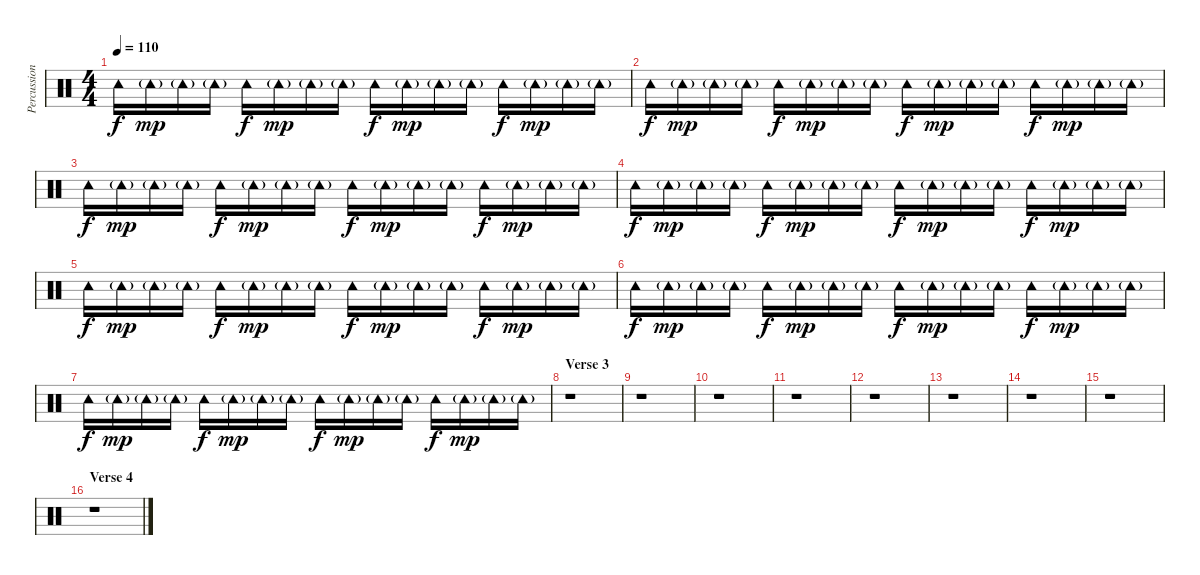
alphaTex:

\track ("Percussion" "Percussion") {instrument percussion}
\staff {score}
\articulation defaults
\ts (4 4)
\tempo 110
\clef neutral
\ks c "Tambourine (hit)".16{dy f} "Tambourine (hit)"{g}.16{dy mp} "Tambourine (hit)"{g}.16 "Tambourine (hit)"{g}.16 "Tambourine (hit)".16{dy f} "Tambourine (hit)"{g}.16{dy mp} "Tambourine (hit)"{g}.16 "Tambourine (hit)"{g}.16 "Tambourine (hit)".16{dy f} "Tambourine (hit)"{g}.16{dy mp} "Tambourine (hit)"{g}.16 "Tambourine (hit)"{g}.16 "Tambourine (hit)".16{dy f} "Tambourine (hit)"{g}.16{dy mp} "Tambourine (hit)"{g}.16 "Tambourine (hit)"{g}.16
|
"Tambourine (hit)".16{dy f} "Tambourine (hit)"{g}.16{dy mp} "Tambourine (hit)"{g}.16 "Tambourine (hit)"{g}.16 "Tambourine (hit)".16{dy f} "Tambourine (hit)"{g}.16{dy mp} "Tambourine (hit)"{g}.16 "Tambourine (hit)"{g}.16 "Tambourine (hit)".16{dy f} "Tambourine (hit)"{g}.16{dy mp} "Tambourine (hit)"{g}.16 "Tambourine (hit)"{g}.16 "Tambourine (hit)".16{dy f} "Tambourine (hit)"{g}.16{dy mp} "Tambourine (hit)"{g}.16 "Tambourine (hit)"{g}.16 |
"Tambourine (hit)".16{dy f} "Tambourine (hit)"{g}.16{dy mp} "Tambourine (hit)"{g}.16 "Tambourine (hit)"{g}.16 "Tambourine (hit)".16{dy f} "Tambourine (hit)"{g}.16{dy mp} "Tambourine (hit)"{g}.16 "Tambourine (hit)"{g}.16 "Tambourine (hit)".16{dy f} "Tambourine (hit)"{g}.16{dy mp} "Tambourine (hit)"{g}.16 "Tambourine (hit)"{g}.16 "Tambourine (hit)".16{dy f} "Tambourine (hit)"{g}.16{dy mp} "Tambourine (hit)"{g}.16 "Tambourine (hit)"{g}.16 |
"Tambourine (hit)".16{dy f} "Tambourine (hit)"{g}.16{dy mp} "Tambourine (hit)"{g}.16 "Tambourine (hit)"{g}.16 "Tambourine (hit)".16{dy f} "Tambourine (hit)"{g}.16{dy mp} "Tambourine (hit)"{g}.16 "Tambourine (hit)"{g}.16 "Tambourine (hit)".16{dy f} "Tambourine (hit)"{g}.16{dy mp} "Tambourine (hit)"{g}.16 "Tambourine (hit)"{g}.16 "Tambourine (hit)".16{dy f} "Tambourine (hit)"{g}.16{dy mp} "Tambourine (hit)"{g}.16 "Tambourine (hit)"{g}.16 |
"Tambourine (hit)".16{dy f} "Tambourine (hit)"{g}.16{dy mp} "Tambourine (hit)"{g}.16 "Tambourine (hit)"{g}.16 "Tambourine (hit)".16{dy f} "Tambourine (hit)"{g}.16{dy mp} "Tambourine (hit)"{g}.16 "Tambourine (hit)"{g}.16 "Tambourine (hit)".16{dy f} "Tambourine (hit)"{g}.16{dy mp} "Tambourine (hit)"{g}.16 "Tambourine (hit)"{g}.16 "Tambourine (hit)".16{dy f} "Tambourine (hit)"{g}.16{dy mp} "Tambourine (hit)"{g}.16 "Tambourine (hit)"{g}.16 |
"Tambourine (hit)".16{dy f} "Tambourine (hit)"{g}.16{dy mp} "Tambourine (hit)"{g}.16 "Tambourine (hit)"{g}.16 "Tambourine (hit)".16{dy f} "Tambourine (hit)"{g}.16{dy mp} "Tambourine (hit)"{g}.16 "Tambourine (hit)"{g}.16 "Tambourine (hit)".16{dy f} "Tambourine (hit)"{g}.16{dy mp} "Tambourine (hit)"{g}.16 "Tambourine (hit)"{g}.16 "Tambourine (hit)".16{dy f} "Tambourine (hit)"{g}.16{dy mp} "Tambourine (hit)"{g}.16 "Tambourine (hit)"{g}.16 |
"Tambourine (hit)".16{dy f} "Tambourine (hit)"{g}.16{dy mp} "Tambourine (hit)"{g}.16 "Tambourine (hit)"{g}.16 "Tambourine (hit)".16{dy f} "Tambourine (hit)"{g}.16{dy mp} "Tambourine (hit)"{g}.16 "Tambourine (hit)"{g}.16 "Tambourine (hit)".16{dy f} "Tambourine (hit)"{g}.16{dy mp} "Tambourine (hit)"{g}.16 "Tambourine (hit)"{g}.16 "Tambourine (hit)".16{dy f} "Tambourine (hit)"{g}.16{dy mp} "Tambourine (hit)"{g}.16 "Tambourine (hit)"{g}.16 |
\section ("" "Verse 3")
r.1 |
r.1 |
r.1 |
r.1 |
r.1 |
r.1 |
r.1 |
r.1 |
\section ("" "Verse 4")
r.1
